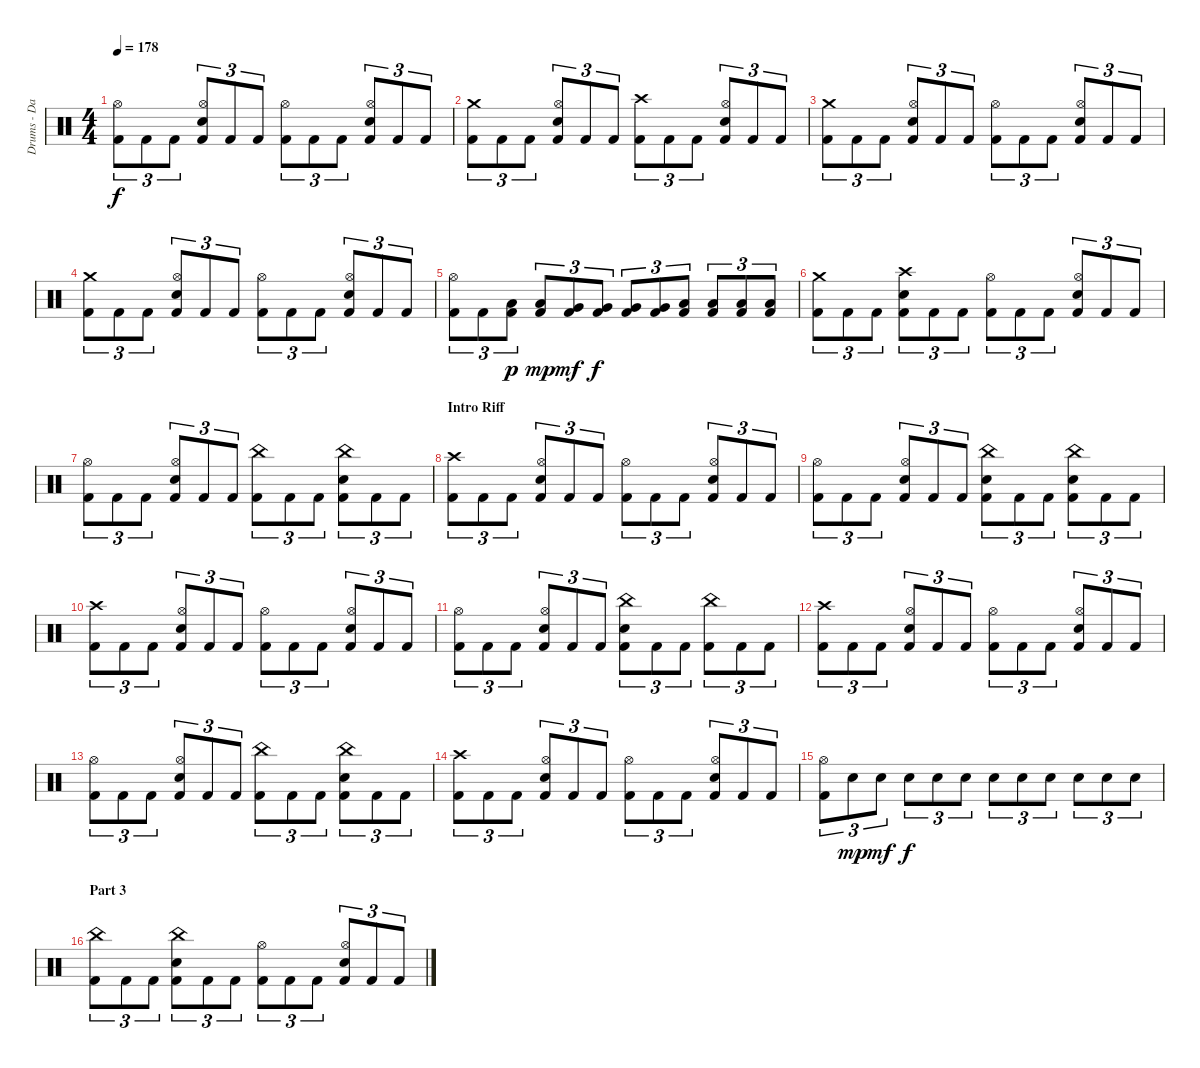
\track ("Drums - Dan Zimmermann" "Drums - Da") {instrument percussion}
\staff {score}
\articulation defaults
\ts (4 4)
\tempo 178
\clef neutral
\ks c
("Kick (hit) 2" "Hi-Hat (open)").8{tu (3 2) dy f} "Kick (hit) 2".8{tu (3 2)} "Kick (hit) 2".8{tu (3 2)} ("Kick (hit) 2" "Electric Snare (hit)" "Hi-Hat (open)").8{tu (3 2)} "Kick (hit) 2".8{tu (3 2)} "Kick (hit) 2".8{tu (3 2)} ("Kick (hit) 2" "Hi-Hat (open)").8{tu (3 2)} "Kick (hit) 2".8{tu (3 2)} "Kick (hit) 2".8{tu (3 2)} ("Kick (hit) 2" "Electric Snare (hit)" "Hi-Hat (open)").8{tu (3 2)} "Kick (hit) 2".8{tu (3 2)} "Kick (hit) 2".8{tu (3 2)} |
("Kick (hit) 2" "Crash medium (hit)").8{tu (3 2)} "Kick (hit) 2".8{tu (3 2)} "Kick (hit) 2".8{tu (3 2)} ("Kick (hit) 2" "Electric Snare (hit)" "Hi-Hat (open)").8{tu (3 2)} "Kick (hit) 2".8{tu (3 2)} "Kick (hit) 2".8{tu (3 2)} ("Kick (hit) 2" "Crash high (hit)").8{tu (3 2)} "Kick (hit) 2".8{tu (3 2)} "Kick (hit) 2".8{tu (3 2)} ("Kick (hit) 2" "Electric Snare (hit)" "Hi-Hat (open)").8{tu (3 2)} "Kick (hit) 2".8{tu (3 2)} "Kick (hit) 2".8{tu (3 2)} |
("Kick (hit) 2" "Crash medium (hit)").8{tu (3 2)} "Kick (hit) 2".8{tu (3 2)} "Kick (hit) 2".8{tu (3 2)} ("Kick (hit) 2" "Electric Snare (hit)" "Hi-Hat (open)").8{tu (3 2)} "Kick (hit) 2".8{tu (3 2)} "Kick (hit) 2".8{tu (3 2)} ("Kick (hit) 2" "Hi-Hat (open)").8{tu (3 2)} "Kick (hit) 2".8{tu (3 2)} "Kick (hit) 2".8{tu (3 2)} ("Kick (hit) 2" "Electric Snare (hit)" "Hi-Hat (open)").8{tu (3 2)} "Kick (hit) 2".8{tu (3 2)} "Kick (hit) 2".8{tu (3 2)} |
("Kick (hit) 2" "Crash medium (hit)").8{tu (3 2)} "Kick (hit) 2".8{tu (3 2)} "Kick (hit) 2".8{tu (3 2)} ("Kick (hit) 2" "Electric Snare (hit)" "Hi-Hat (open)").8{tu (3 2)} "Kick (hit) 2".8{tu (3 2)} "Kick (hit) 2".8{tu (3 2)} ("Kick (hit) 2" "Hi-Hat (open)").8{tu (3 2)} "Kick (hit) 2".8{tu (3 2)} "Kick (hit) 2".8{tu (3 2)} ("Kick (hit) 2" "Electric Snare (hit)" "Hi-Hat (open)").8{tu (3 2)} "Kick (hit) 2".8{tu (3 2)} "Kick (hit) 2".8{tu (3 2)} |
("Kick (hit) 2" "Hi-Hat (open)").8{tu (3 2)} "Kick (hit) 2".8{tu (3 2)} ("Kick (hit) 2" "Low Tom (hit)").8{tu (3 2) dy p} ("Kick (hit) 2" "Low Tom (hit)").8{tu (3 2) dy mp} ("Kick (hit) 2" "Very Low Tom (hit)").8{tu (3 2) dy mf} ("Kick (hit) 2" "Very Low Tom (hit)").8{tu (3 2) dy f} ("Kick (hit) 2" "Very Low Tom (hit)").8{tu (3 2)} ("Kick (hit) 2" "Very Low Tom (hit)").8{tu (3 2)} ("Kick (hit) 2" "Low Floor Tom (hit)").8{tu (3 2)} ("Kick (hit) 2" "Low Floor Tom (hit)").8{tu (3 2)} ("Kick (hit) 2" "Low Floor Tom (hit)").8{tu (3 2)} ("Kick (hit) 2" "Low Floor Tom (hit)").8{tu (3 2)} |
("Kick (hit) 2" "Crash medium (hit)").8{tu (3 2)} "Kick (hit) 2".8{tu (3 2)} "Kick (hit) 2".8{tu (3 2)} ("Kick (hit) 2" "Electric Snare (hit)" "Crash high (hit)").8{tu (3 2)} "Kick (hit) 2".8{tu (3 2)} "Kick (hit) 2".8{tu (3 2)} ("Kick (hit) 2" "Hi-Hat (open)").8{tu (3 2)} "Kick (hit) 2".8{tu (3 2)} "Kick (hit) 2".8{tu (3 2)} ("Kick (hit) 2" "Electric Snare (hit)" "Hi-Hat (open)").8{tu (3 2)} "Kick (hit) 2".8{tu (3 2)} "Kick (hit) 2".8{tu (3 2)} |
("Kick (hit) 2" "Hi-Hat (open)").8{tu (3 2)} "Kick (hit) 2".8{tu (3 2)} "Kick (hit) 2".8{tu (3 2)} ("Kick (hit) 2" "Electric Snare (hit)" "Hi-Hat (open)").8{tu (3 2)} "Kick (hit) 2".8{tu (3 2)} "Kick (hit) 2".8{tu (3 2)} ("Kick (hit) 2" "China (hit)").8{tu (3 2)} "Kick (hit) 2".8{tu (3 2)} "Kick (hit) 2".8{tu (3 2)} ("Kick (hit) 2" "Electric Snare (hit)" "China (hit)").8{tu (3 2)} "Kick (hit) 2".8{tu (3 2)} "Kick (hit) 2".8{tu (3 2)} |
\section ("" "Intro Riff")
("Kick (hit) 2" "Crash high (hit)").8{tu (3 2)} "Kick (hit) 2".8{tu (3 2)} "Kick (hit) 2".8{tu (3 2)} ("Kick (hit) 2" "Electric Snare (hit)" "Hi-Hat (open)").8{tu (3 2)} "Kick (hit) 2".8{tu (3 2)} "Kick (hit) 2".8{tu (3 2)} ("Kick (hit) 2" "Hi-Hat (open)").8{tu (3 2)} "Kick (hit) 2".8{tu (3 2)} "Kick (hit) 2".8{tu (3 2)} ("Kick (hit) 2" "Electric Snare (hit)" "Hi-Hat (open)").8{tu (3 2)} "Kick (hit) 2".8{tu (3 2)} "Kick (hit) 2".8{tu (3 2)} |
("Kick (hit) 2" "Hi-Hat (open)").8{tu (3 2)} "Kick (hit) 2".8{tu (3 2)} "Kick (hit) 2".8{tu (3 2)} ("Kick (hit) 2" "Electric Snare (hit)" "Hi-Hat (open)").8{tu (3 2)} "Kick (hit) 2".8{tu (3 2)} "Kick (hit) 2".8{tu (3 2)} ("Kick (hit) 2" "Electric Snare (hit)" "China (hit)").8{tu (3 2)} "Kick (hit) 2".8{tu (3 2)} "Kick (hit) 2".8{tu (3 2)} ("Kick (hit) 2" "Electric Snare (hit)" "China (hit)").8{tu (3 2)} "Kick (hit) 2".8{tu (3 2)} "Kick (hit) 2".8{tu (3 2)} |
("Kick (hit) 2" "Crash high (hit)").8{tu (3 2)} "Kick (hit) 2".8{tu (3 2)} "Kick (hit) 2".8{tu (3 2)} ("Kick (hit) 2" "Electric Snare (hit)" "Hi-Hat (open)").8{tu (3 2)} "Kick (hit) 2".8{tu (3 2)} "Kick (hit) 2".8{tu (3 2)} ("Kick (hit) 2" "Hi-Hat (open)").8{tu (3 2)} "Kick (hit) 2".8{tu (3 2)} "Kick (hit) 2".8{tu (3 2)} ("Kick (hit) 2" "Electric Snare (hit)" "Hi-Hat (open)").8{tu (3 2)} "Kick (hit) 2".8{tu (3 2)} "Kick (hit) 2".8{tu (3 2)} |
("Kick (hit) 2" "Hi-Hat (open)").8{tu (3 2)} "Kick (hit) 2".8{tu (3 2)} "Kick (hit) 2".8{tu (3 2)} ("Kick (hit) 2" "Electric Snare (hit)" "Hi-Hat (open)").8{tu (3 2)} "Kick (hit) 2".8{tu (3 2)} "Kick (hit) 2".8{tu (3 2)} ("Kick (hit) 2" "Electric Snare (hit)" "China (hit)").8{tu (3 2)} "Kick (hit) 2".8{tu (3 2)} "Kick (hit) 2".8{tu (3 2)} ("Kick (hit) 2" "China (hit)").8{tu (3 2)} "Kick (hit) 2".8{tu (3 2)} "Kick (hit) 2".8{tu (3 2)} |
("Kick (hit) 2" "Crash high (hit)").8{tu (3 2)} "Kick (hit) 2".8{tu (3 2)} "Kick (hit) 2".8{tu (3 2)} ("Kick (hit) 2" "Electric Snare (hit)" "Hi-Hat (open)").8{tu (3 2)} "Kick (hit) 2".8{tu (3 2)} "Kick (hit) 2".8{tu (3 2)} ("Kick (hit) 2" "Hi-Hat (open)").8{tu (3 2)} "Kick (hit) 2".8{tu (3 2)} "Kick (hit) 2".8{tu (3 2)} ("Kick (hit) 2" "Electric Snare (hit)" "Hi-Hat (open)").8{tu (3 2)} "Kick (hit) 2".8{tu (3 2)} "Kick (hit) 2".8{tu (3 2)} |
("Kick (hit) 2" "Hi-Hat (open)").8{tu (3 2)} "Kick (hit) 2".8{tu (3 2)} "Kick (hit) 2".8{tu (3 2)} ("Kick (hit) 2" "Electric Snare (hit)" "Hi-Hat (open)").8{tu (3 2)} "Kick (hit) 2".8{tu (3 2)} "Kick (hit) 2".8{tu (3 2)} ("Kick (hit) 2" "China (hit)").8{tu (3 2)} "Kick (hit) 2".8{tu (3 2)} "Kick (hit) 2".8{tu (3 2)} ("Kick (hit) 2" "Electric Snare (hit)" "China (hit)").8{tu (3 2)} "Kick (hit) 2".8{tu (3 2)} "Kick (hit) 2".8{tu (3 2)} |
("Kick (hit) 2" "Crash high (hit)").8{tu (3 2)} "Kick (hit) 2".8{tu (3 2)} "Kick (hit) 2".8{tu (3 2)} ("Kick (hit) 2" "Electric Snare (hit)" "Hi-Hat (open)").8{tu (3 2)} "Kick (hit) 2".8{tu (3 2)} "Kick (hit) 2".8{tu (3 2)} ("Kick (hit) 2" "Hi-Hat (open)").8{tu (3 2)} "Kick (hit) 2".8{tu (3 2)} "Kick (hit) 2".8{tu (3 2)} ("Kick (hit) 2" "Electric Snare (hit)" "Hi-Hat (open)").8{tu (3 2)} "Kick (hit) 2".8{tu (3 2)} "Kick (hit) 2".8{tu (3 2)} |
("Kick (hit) 2" "Hi-Hat (open)").8{tu (3 2)} "Electric Snare (hit)".8{tu (3 2) dy mp} "Electric Snare (hit)".8{tu (3 2) dy mf} "Electric Snare (hit)".8{tu (3 2) dy f} "Electric Snare (hit)".8{tu (3 2)} "Electric Snare (hit)".8{tu (3 2)} "Electric Snare (hit)".8{tu (3 2)} "Electric Snare (hit)".8{tu (3 2)} "Electric Snare (hit)".8{tu (3 2)} "Electric Snare (hit)".8{tu (3 2)} "Electric Snare (hit)".8{tu (3 2)} "Electric Snare (hit)".8{tu (3 2)} |
\section ("" "Part 3")
("Kick (hit) 2" "China (hit)").8{tu (3 2)} "Kick (hit) 2".8{tu (3 2)} "Kick (hit) 2".8{tu (3 2)} ("Kick (hit) 2" "Electric Snare (hit)" "China (hit)").8{tu (3 2)} "Kick (hit) 2".8{tu (3 2)} "Kick (hit) 2".8{tu (3 2)} ("Kick (hit) 2" "Hi-Hat (open)").8{tu (3 2)} "Kick (hit) 2".8{tu (3 2)} "Kick (hit) 2".8{tu (3 2)} ("Kick (hit) 2" "Electric Snare (hit)" "Hi-Hat (open)").8{tu (3 2)} "Kick (hit) 2".8{tu (3 2)} "Kick (hit) 2".8{tu (3 2)}
